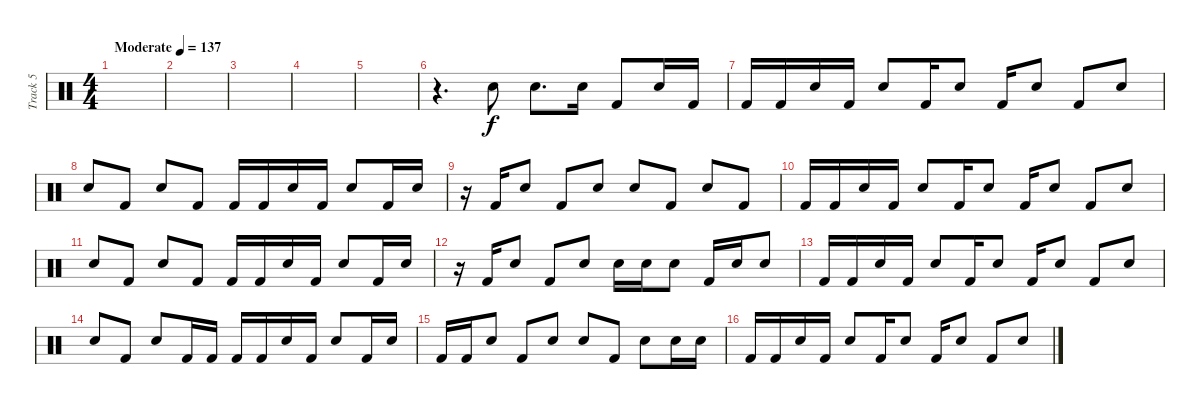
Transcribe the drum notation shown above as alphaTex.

\track ("Track 5" "Track 5") {instrument percussion}
\staff {score}
\articulation defaults
\ts (4 4)
\tempo (137 "Moderate")
\clef neutral
\ks c
|
|
|
|
|
r.4{d} "Snare (hit) 2".8 "Snare (hit) 2".8{d} "Snare (hit) 2".16 "Kick (hit) 2".8 "Snare (hit) 2".16 "Kick (hit) 2".16 |
"Kick (hit) 2".16 "Kick (hit) 2".16 "Snare (hit) 2".16 "Kick (hit) 2".16 "Snare (hit) 2".8 "Kick (hit) 2".16 "Snare (hit) 2".8 "Kick (hit) 2".16 "Snare (hit) 2".8 "Kick (hit) 2".8 "Snare (hit) 2".8 |
"Snare (hit) 2".8 "Kick (hit) 2".8 "Snare (hit) 2".8 "Kick (hit) 2".8 "Kick (hit) 2".16 "Kick (hit) 2".16 "Snare (hit) 2".16 "Kick (hit) 2".16 "Snare (hit) 2".8 "Kick (hit) 2".16 "Snare (hit) 2".16 |
r.16 "Kick (hit) 2".16 "Snare (hit) 2".8 "Kick (hit) 2".8 "Snare (hit) 2".8 "Snare (hit) 2".8 "Kick (hit) 2".8 "Snare (hit) 2".8 "Kick (hit) 2".8 |
"Kick (hit) 2".16 "Kick (hit) 2".16 "Snare (hit) 2".16 "Kick (hit) 2".16 "Snare (hit) 2".8 "Kick (hit) 2".16 "Snare (hit) 2".8 "Kick (hit) 2".16 "Snare (hit) 2".8 "Kick (hit) 2".8 "Snare (hit) 2".8 |
"Snare (hit) 2".8 "Kick (hit) 2".8 "Snare (hit) 2".8 "Kick (hit) 2".8 "Kick (hit) 2".16 "Kick (hit) 2".16 "Snare (hit) 2".16 "Kick (hit) 2".16 "Snare (hit) 2".8 "Kick (hit) 2".16 "Snare (hit) 2".16 |
r.16 "Kick (hit) 2".16 "Snare (hit) 2".8 "Kick (hit) 2".8 "Snare (hit) 2".8 "Snare (hit) 2".16 "Snare (hit) 2".16 "Snare (hit) 2".8 "Kick (hit) 2".16 "Snare (hit) 2".16 "Snare (hit) 2".8 |
"Kick (hit) 2".16 "Kick (hit) 2".16 "Snare (hit) 2".16 "Kick (hit) 2".16 "Snare (hit) 2".8 "Kick (hit) 2".16 "Snare (hit) 2".8 "Kick (hit) 2".16 "Snare (hit) 2".8 "Kick (hit) 2".8 "Snare (hit) 2".8 |
"Snare (hit) 2".8 "Kick (hit) 2".8 "Snare (hit) 2".8 "Kick (hit) 2".16 "Kick (hit) 2".16 "Kick (hit) 2".16 "Kick (hit) 2".16 "Snare (hit) 2".16 "Kick (hit) 2".16 "Snare (hit) 2".8 "Kick (hit) 2".16 "Snare (hit) 2".16 |
"Kick (hit) 2".16 "Kick (hit) 2".16 "Snare (hit) 2".8 "Kick (hit) 2".8 "Snare (hit) 2".8 "Snare (hit) 2".8 "Kick (hit) 2".8 "Snare (hit) 2".8 "Snare (hit) 2".16 "Snare (hit) 2".16 |
"Kick (hit) 2".16 "Kick (hit) 2".16 "Snare (hit) 2".16 "Kick (hit) 2".16 "Snare (hit) 2".8 "Kick (hit) 2".16 "Snare (hit) 2".8 "Kick (hit) 2".16 "Snare (hit) 2".8 "Kick (hit) 2".8 "Snare (hit) 2".8
